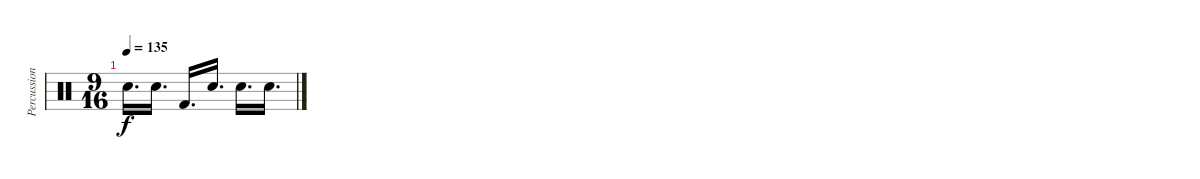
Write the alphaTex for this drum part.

\track ("Percussion" "Percussion") {instrument percussion}
\staff {score}
\articulation defaults
\ts (9 16)
\tempo 135
\clef neutral
\ks c "Snare (hit) 2".16{d dy f} "Snare (hit) 2".16{d} "Kick (hit) 2".16{d} "Snare (hit) 2".16{d} "Snare (hit) 2".16{d} "Snare (hit) 2".16{d}
